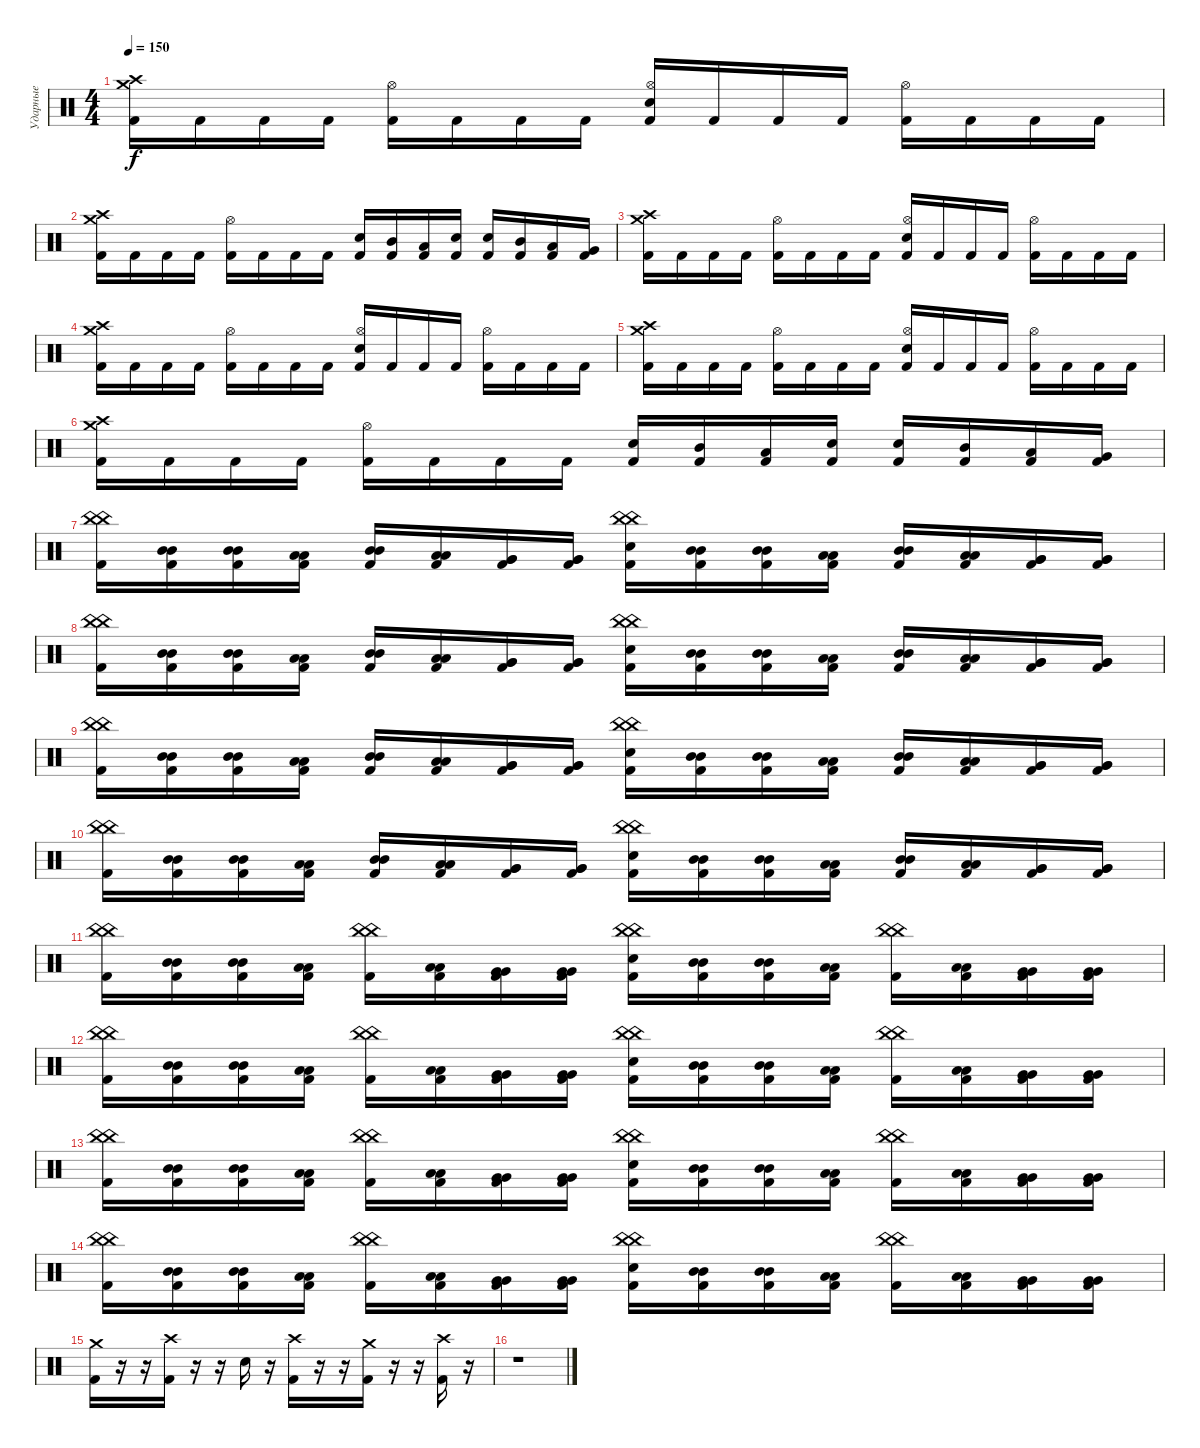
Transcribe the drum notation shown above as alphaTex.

\track ("Ударные" "Ударные") {instrument percussion}
\staff {score}
\articulation defaults
\ts (4 4)
\tempo 150
\clef neutral
\ks c
("Kick (hit) 2" "Crash high (hit)" "Crash medium (hit)").16{dy f} "Kick (hit) 2".16 "Kick (hit) 2".16 "Kick (hit) 2".16 ("Kick (hit) 2" "Hi-Hat (open)").16 "Kick (hit) 2".16 "Kick (hit) 2".16 "Kick (hit) 2".16 ("Kick (hit) 2" "Electric Snare (hit)" "Hi-Hat (open)").16 "Kick (hit) 2".16 "Kick (hit) 2".16 "Kick (hit) 2".16 ("Kick (hit) 2" "Hi-Hat (open)").16 "Kick (hit) 2".16 "Kick (hit) 2".16 "Kick (hit) 2".16 |
("Kick (hit) 2" "Crash high (hit)" "Crash medium (hit)").16 "Kick (hit) 2".16 "Kick (hit) 2".16 "Kick (hit) 2".16 ("Kick (hit) 2" "Hi-Hat (open)").16 "Kick (hit) 2".16 "Kick (hit) 2".16 "Kick (hit) 2".16 ("Kick (hit) 2" "Electric Snare (hit)").16 ("Kick (hit) 2" "Mid Tom (hit)").16 ("Kick (hit) 2" "Low Tom (hit)").16 ("Kick (hit) 2" "Electric Snare (hit)").16 ("Kick (hit) 2" "Electric Snare (hit)").16 ("Kick (hit) 2" "Mid Tom (hit)").16 ("Kick (hit) 2" "Low Tom (hit)").16 ("Kick (hit) 2" "Very Low Tom (hit)").16 |
("Kick (hit) 2" "Crash high (hit)" "Crash medium (hit)").16 "Kick (hit) 2".16 "Kick (hit) 2".16 "Kick (hit) 2".16 ("Kick (hit) 2" "Hi-Hat (open)").16 "Kick (hit) 2".16 "Kick (hit) 2".16 "Kick (hit) 2".16 ("Kick (hit) 2" "Electric Snare (hit)" "Hi-Hat (open)").16 "Kick (hit) 2".16 "Kick (hit) 2".16 "Kick (hit) 2".16 ("Kick (hit) 2" "Hi-Hat (open)").16 "Kick (hit) 2".16 "Kick (hit) 2".16 "Kick (hit) 2".16 |
("Kick (hit) 2" "Crash high (hit)" "Crash medium (hit)").16 "Kick (hit) 2".16 "Kick (hit) 2".16 "Kick (hit) 2".16 ("Kick (hit) 2" "Hi-Hat (open)").16 "Kick (hit) 2".16 "Kick (hit) 2".16 "Kick (hit) 2".16 ("Kick (hit) 2" "Electric Snare (hit)" "Hi-Hat (open)").16 "Kick (hit) 2".16 "Kick (hit) 2".16 "Kick (hit) 2".16 ("Kick (hit) 2" "Hi-Hat (open)").16 "Kick (hit) 2".16 "Kick (hit) 2".16 "Kick (hit) 2".16 |
("Kick (hit) 2" "Crash high (hit)" "Crash medium (hit)").16 "Kick (hit) 2".16 "Kick (hit) 2".16 "Kick (hit) 2".16 ("Kick (hit) 2" "Hi-Hat (open)").16 "Kick (hit) 2".16 "Kick (hit) 2".16 "Kick (hit) 2".16 ("Kick (hit) 2" "Electric Snare (hit)" "Hi-Hat (open)").16 "Kick (hit) 2".16 "Kick (hit) 2".16 "Kick (hit) 2".16 ("Kick (hit) 2" "Hi-Hat (open)").16 "Kick (hit) 2".16 "Kick (hit) 2".16 "Kick (hit) 2".16 |
("Kick (hit) 2" "Crash high (hit)" "Crash medium (hit)").16 "Kick (hit) 2".16 "Kick (hit) 2".16 "Kick (hit) 2".16 ("Kick (hit) 2" "Hi-Hat (open)").16 "Kick (hit) 2".16 "Kick (hit) 2".16 "Kick (hit) 2".16 ("Kick (hit) 2" "Electric Snare (hit)").16 ("Kick (hit) 2" "Mid Tom (hit)").16 ("Kick (hit) 2" "Low Tom (hit)").16 ("Kick (hit) 2" "Electric Snare (hit)").16 ("Kick (hit) 2" "Electric Snare (hit)").16 ("Kick (hit) 2" "Mid Tom (hit)").16 ("Kick (hit) 2" "Low Tom (hit)").16 ("Kick (hit) 2" "Very Low Tom (hit)").16 |
("Kick (hit) 2" "China (hit)" "China (hit)").16 ("Kick (hit) 2" "Mid Tom (hit)" "Mid Tom (hit)").16 ("Kick (hit) 2" "Mid Tom (hit)" "Mid Tom (hit)").16 ("Kick (hit) 2" "Low Tom (hit)" "Low Tom (hit)").16 ("Kick (hit) 2" "Mid Tom (hit)" "Mid Tom (hit)").16 ("Kick (hit) 2" "Low Tom (hit)" "Low Tom (hit)").16 ("Kick (hit) 2" "Very Low Tom (hit)" "Very Low Tom (hit)").16 ("Kick (hit) 2" "Very Low Tom (hit)" "Very Low Tom (hit)").16 ("Kick (hit) 2" "Electric Snare (hit)" "China (hit)" "China (hit)").16 ("Kick (hit) 2" "Mid Tom (hit)" "Mid Tom (hit)").16 ("Kick (hit) 2" "Mid Tom (hit)" "Mid Tom (hit)").16 ("Kick (hit) 2" "Low Tom (hit)" "Low Tom (hit)").16 ("Kick (hit) 2" "Mid Tom (hit)" "Mid Tom (hit)").16 ("Kick (hit) 2" "Low Tom (hit)" "Low Tom (hit)").16 ("Kick (hit) 2" "Very Low Tom (hit)" "Very Low Tom (hit)").16 ("Kick (hit) 2" "Very Low Tom (hit)" "Very Low Tom (hit)").16 |
("Kick (hit) 2" "China (hit)" "China (hit)").16 ("Kick (hit) 2" "Mid Tom (hit)" "Mid Tom (hit)").16 ("Kick (hit) 2" "Mid Tom (hit)" "Mid Tom (hit)").16 ("Kick (hit) 2" "Low Tom (hit)" "Low Tom (hit)").16 ("Kick (hit) 2" "Mid Tom (hit)" "Mid Tom (hit)").16 ("Kick (hit) 2" "Low Tom (hit)" "Low Tom (hit)").16 ("Kick (hit) 2" "Very Low Tom (hit)" "Very Low Tom (hit)").16 ("Kick (hit) 2" "Very Low Tom (hit)" "Very Low Tom (hit)").16 ("Kick (hit) 2" "Electric Snare (hit)" "China (hit)" "China (hit)").16 ("Kick (hit) 2" "Mid Tom (hit)" "Mid Tom (hit)").16 ("Kick (hit) 2" "Mid Tom (hit)" "Mid Tom (hit)").16 ("Kick (hit) 2" "Low Tom (hit)" "Low Tom (hit)").16 ("Kick (hit) 2" "Mid Tom (hit)" "Mid Tom (hit)").16 ("Kick (hit) 2" "Low Tom (hit)" "Low Tom (hit)").16 ("Kick (hit) 2" "Very Low Tom (hit)" "Very Low Tom (hit)").16 ("Kick (hit) 2" "Very Low Tom (hit)" "Very Low Tom (hit)").16 |
("Kick (hit) 2" "China (hit)" "China (hit)").16 ("Kick (hit) 2" "Mid Tom (hit)" "Mid Tom (hit)").16 ("Kick (hit) 2" "Mid Tom (hit)" "Mid Tom (hit)").16 ("Kick (hit) 2" "Low Tom (hit)" "Low Tom (hit)").16 ("Kick (hit) 2" "Mid Tom (hit)" "Mid Tom (hit)").16 ("Kick (hit) 2" "Low Tom (hit)" "Low Tom (hit)").16 ("Kick (hit) 2" "Very Low Tom (hit)" "Very Low Tom (hit)").16 ("Kick (hit) 2" "Very Low Tom (hit)" "Very Low Tom (hit)").16 ("Kick (hit) 2" "Electric Snare (hit)" "China (hit)" "China (hit)").16 ("Kick (hit) 2" "Mid Tom (hit)" "Mid Tom (hit)").16 ("Kick (hit) 2" "Mid Tom (hit)" "Mid Tom (hit)").16 ("Kick (hit) 2" "Low Tom (hit)" "Low Tom (hit)").16 ("Kick (hit) 2" "Mid Tom (hit)" "Mid Tom (hit)").16 ("Kick (hit) 2" "Low Tom (hit)" "Low Tom (hit)").16 ("Kick (hit) 2" "Very Low Tom (hit)" "Very Low Tom (hit)").16 ("Kick (hit) 2" "Very Low Tom (hit)" "Very Low Tom (hit)").16 |
("Kick (hit) 2" "China (hit)" "China (hit)").16 ("Kick (hit) 2" "Mid Tom (hit)" "Mid Tom (hit)").16 ("Kick (hit) 2" "Mid Tom (hit)" "Mid Tom (hit)").16 ("Kick (hit) 2" "Low Tom (hit)" "Low Tom (hit)").16 ("Kick (hit) 2" "Mid Tom (hit)" "Mid Tom (hit)").16 ("Kick (hit) 2" "Low Tom (hit)" "Low Tom (hit)").16 ("Kick (hit) 2" "Very Low Tom (hit)" "Very Low Tom (hit)").16 ("Kick (hit) 2" "Very Low Tom (hit)" "Very Low Tom (hit)").16 ("Kick (hit) 2" "Electric Snare (hit)" "China (hit)" "China (hit)").16 ("Kick (hit) 2" "Mid Tom (hit)" "Mid Tom (hit)").16 ("Kick (hit) 2" "Mid Tom (hit)" "Mid Tom (hit)").16 ("Kick (hit) 2" "Low Tom (hit)" "Low Tom (hit)").16 ("Kick (hit) 2" "Mid Tom (hit)" "Mid Tom (hit)").16 ("Kick (hit) 2" "Low Tom (hit)" "Low Tom (hit)").16 ("Kick (hit) 2" "Very Low Tom (hit)" "Very Low Tom (hit)").16 ("Kick (hit) 2" "Very Low Tom (hit)" "Very Low Tom (hit)").16 |
("Kick (hit) 2" "China (hit)" "China (hit)").16 ("Kick (hit) 2" "Mid Tom (hit)" "Mid Tom (hit)").16 ("Kick (hit) 2" "Mid Tom (hit)" "Mid Tom (hit)").16 ("Kick (hit) 2" "Low Tom (hit)" "Low Tom (hit)").16 ("Kick (hit) 2" "China (hit)" "China (hit)").16 ("Kick (hit) 2" "Low Tom (hit)" "Low Tom (hit)").16 ("Kick (hit) 2" "Very Low Tom (hit)" "Very Low Tom (hit)").16 ("Kick (hit) 2" "Very Low Tom (hit)" "Very Low Tom (hit)").16 ("Kick (hit) 2" "Electric Snare (hit)" "China (hit)" "China (hit)").16 ("Kick (hit) 2" "Mid Tom (hit)" "Mid Tom (hit)").16 ("Kick (hit) 2" "Mid Tom (hit)" "Mid Tom (hit)").16 ("Kick (hit) 2" "Low Tom (hit)" "Low Tom (hit)").16 ("Kick (hit) 2" "China (hit)" "China (hit)").16 ("Kick (hit) 2" "Low Tom (hit)" "Low Tom (hit)").16 ("Kick (hit) 2" "Very Low Tom (hit)" "Very Low Tom (hit)").16 ("Kick (hit) 2" "Very Low Tom (hit)" "Very Low Tom (hit)").16 |
("Kick (hit) 2" "China (hit)" "China (hit)").16 ("Kick (hit) 2" "Mid Tom (hit)" "Mid Tom (hit)").16 ("Kick (hit) 2" "Mid Tom (hit)" "Mid Tom (hit)").16 ("Kick (hit) 2" "Low Tom (hit)" "Low Tom (hit)").16 ("Kick (hit) 2" "China (hit)" "China (hit)").16 ("Kick (hit) 2" "Low Tom (hit)" "Low Tom (hit)").16 ("Kick (hit) 2" "Very Low Tom (hit)" "Very Low Tom (hit)").16 ("Kick (hit) 2" "Very Low Tom (hit)" "Very Low Tom (hit)").16 ("Kick (hit) 2" "Electric Snare (hit)" "China (hit)" "China (hit)").16 ("Kick (hit) 2" "Mid Tom (hit)" "Mid Tom (hit)").16 ("Kick (hit) 2" "Mid Tom (hit)" "Mid Tom (hit)").16 ("Kick (hit) 2" "Low Tom (hit)" "Low Tom (hit)").16 ("Kick (hit) 2" "China (hit)" "China (hit)").16 ("Kick (hit) 2" "Low Tom (hit)" "Low Tom (hit)").16 ("Kick (hit) 2" "Very Low Tom (hit)" "Very Low Tom (hit)").16 ("Kick (hit) 2" "Very Low Tom (hit)" "Very Low Tom (hit)").16 |
("Kick (hit) 2" "China (hit)" "China (hit)").16 ("Kick (hit) 2" "Mid Tom (hit)" "Mid Tom (hit)").16 ("Kick (hit) 2" "Mid Tom (hit)" "Mid Tom (hit)").16 ("Kick (hit) 2" "Low Tom (hit)" "Low Tom (hit)").16 ("Kick (hit) 2" "China (hit)" "China (hit)").16 ("Kick (hit) 2" "Low Tom (hit)" "Low Tom (hit)").16 ("Kick (hit) 2" "Very Low Tom (hit)" "Very Low Tom (hit)").16 ("Kick (hit) 2" "Very Low Tom (hit)" "Very Low Tom (hit)").16 ("Kick (hit) 2" "Electric Snare (hit)" "China (hit)" "China (hit)").16 ("Kick (hit) 2" "Mid Tom (hit)" "Mid Tom (hit)").16 ("Kick (hit) 2" "Mid Tom (hit)" "Mid Tom (hit)").16 ("Kick (hit) 2" "Low Tom (hit)" "Low Tom (hit)").16 ("Kick (hit) 2" "China (hit)" "China (hit)").16 ("Kick (hit) 2" "Low Tom (hit)" "Low Tom (hit)").16 ("Kick (hit) 2" "Very Low Tom (hit)" "Very Low Tom (hit)").16 ("Kick (hit) 2" "Very Low Tom (hit)" "Very Low Tom (hit)").16 |
("Kick (hit) 2" "China (hit)" "China (hit)").16 ("Kick (hit) 2" "Mid Tom (hit)" "Mid Tom (hit)").16 ("Kick (hit) 2" "Mid Tom (hit)" "Mid Tom (hit)").16 ("Kick (hit) 2" "Low Tom (hit)" "Low Tom (hit)").16 ("Kick (hit) 2" "China (hit)" "China (hit)").16 ("Kick (hit) 2" "Low Tom (hit)" "Low Tom (hit)").16 ("Kick (hit) 2" "Very Low Tom (hit)" "Very Low Tom (hit)").16 ("Kick (hit) 2" "Very Low Tom (hit)" "Very Low Tom (hit)").16 ("Kick (hit) 2" "Electric Snare (hit)" "China (hit)" "China (hit)").16 ("Kick (hit) 2" "Mid Tom (hit)" "Mid Tom (hit)").16 ("Kick (hit) 2" "Mid Tom (hit)" "Mid Tom (hit)").16 ("Kick (hit) 2" "Low Tom (hit)" "Low Tom (hit)").16 ("Kick (hit) 2" "China (hit)" "China (hit)").16 ("Kick (hit) 2" "Low Tom (hit)" "Low Tom (hit)").16 ("Kick (hit) 2" "Very Low Tom (hit)" "Very Low Tom (hit)").16 ("Kick (hit) 2" "Very Low Tom (hit)" "Very Low Tom (hit)").16 |
("Kick (hit) 2" "Crash medium (hit)").16 r.16 r.16 ("Kick (hit) 2" "Crash high (hit)").16 r.16 r.16 "Electric Snare (hit)".16 r.16 ("Kick (hit) 2" "Crash high (hit)").16 r.16 r.16 ("Kick (hit) 2" "Crash medium (hit)").16 r.16 r.16 ("Kick (hit) 2" "Crash high (hit)").16 r.16 |
r.1
